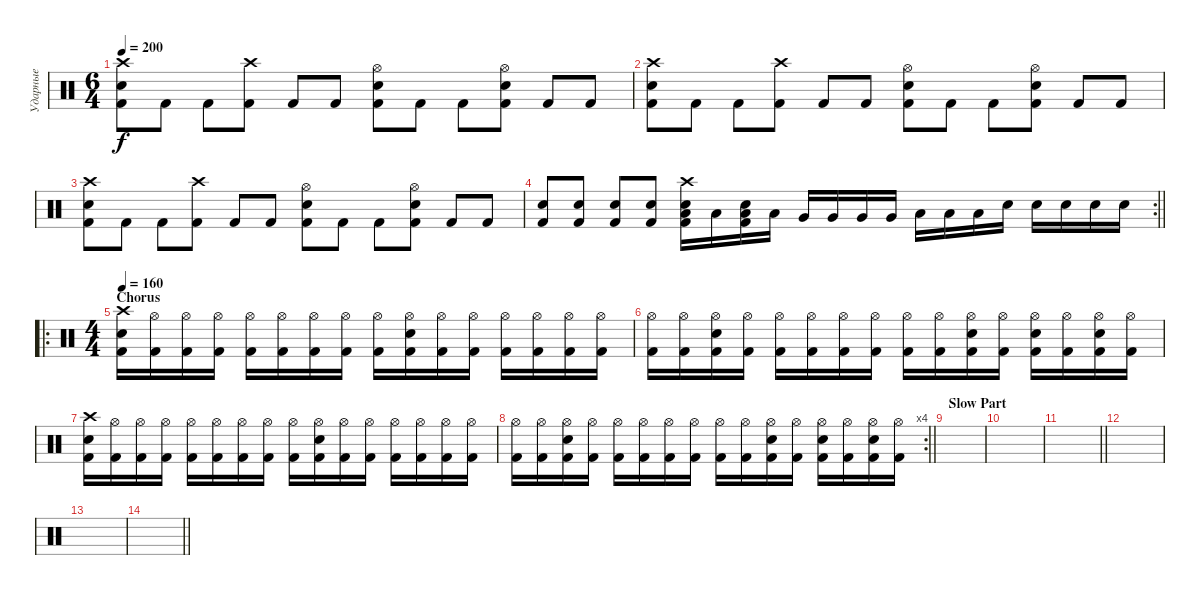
\track ("Ударные" "Ударные") {instrument percussion}
\staff {score}
\articulation defaults
\ts (6 4)
\tempo 200
\clef neutral
\ks c
("Crash high (hit)" "Snare (hit) 2" "Kick (hit) 2").8{dy f} "Kick (hit) 2".8 "Kick (hit) 2".8 ("Crash high (hit)" "Kick (hit) 2").8 "Kick (hit) 2".8 "Kick (hit) 2".8 ("Hi-Hat (open)" "Snare (hit) 2" "Kick (hit) 2").8 "Kick (hit) 2".8 "Kick (hit) 2".8 ("Hi-Hat (open)" "Snare (hit) 2" "Kick (hit) 2").8 "Kick (hit) 2".8 "Kick (hit) 2".8 |
("Crash high (hit)" "Snare (hit) 2" "Kick (hit) 2").8 "Kick (hit) 2".8 "Kick (hit) 2".8 ("Crash high (hit)" "Kick (hit) 2").8 "Kick (hit) 2".8 "Kick (hit) 2".8 ("Hi-Hat (open)" "Snare (hit) 2" "Kick (hit) 2").8 "Kick (hit) 2".8 "Kick (hit) 2".8 ("Hi-Hat (open)" "Snare (hit) 2" "Kick (hit) 2").8 "Kick (hit) 2".8 "Kick (hit) 2".8 |
("Crash high (hit)" "Snare (hit) 2" "Kick (hit) 2").8 "Kick (hit) 2".8 "Kick (hit) 2".8 ("Crash high (hit)" "Kick (hit) 2").8 "Kick (hit) 2".8 "Kick (hit) 2".8 ("Hi-Hat (open)" "Snare (hit) 2" "Kick (hit) 2").8 "Kick (hit) 2".8 "Kick (hit) 2".8 ("Hi-Hat (open)" "Snare (hit) 2" "Kick (hit) 2").8 "Kick (hit) 2".8 "Kick (hit) 2".8 |
\rc 2
\barLineRight lightlight
("Snare (hit) 2" "Kick (hit) 2").8 ("Snare (hit) 2" "Kick (hit) 2").8 ("Snare (hit) 2" "Kick (hit) 2").8 ("Snare (hit) 2" "Kick (hit) 2").8 ("Snare (hit) 2" "Crash high (hit)" "Low Tom (hit)" "Kick (hit) 2").16 "Low Tom (hit)".16 ("Snare (hit) 2" "Low Tom (hit)" "Kick (hit) 2").16 "Low Tom (hit)".16 "Very Low Tom (hit)".16 "Very Low Tom (hit)".16 "Very Low Tom (hit)".16 "Very Low Tom (hit)".16 "Low Floor Tom (hit)".16 "Low Floor Tom (hit)".16 "Low Floor Tom (hit)".16 "Snare (hit) 2".16 "Snare (hit) 2".16 "Snare (hit) 2".16 "Snare (hit) 2".16 "Snare (hit) 2".16 |
\ro
\ts (4 4)
\section ("" "Chorus")
\tempo 160
("Crash high (hit)" "Snare (hit) 2" "Kick (hit) 2").16 ("Hi-Hat (open)" "Kick (hit) 2").16 ("Hi-Hat (open)" "Kick (hit) 2").16 ("Hi-Hat (open)" "Kick (hit) 2").16 ("Hi-Hat (open)" "Kick (hit) 2").16 ("Hi-Hat (open)" "Kick (hit) 2").16 ("Hi-Hat (open)" "Kick (hit) 2").16 ("Hi-Hat (open)" "Kick (hit) 2").16 ("Hi-Hat (open)" "Kick (hit) 2").16 ("Hi-Hat (open)" "Snare (hit) 2" "Kick (hit) 2").16 ("Hi-Hat (open)" "Kick (hit) 2").16 ("Hi-Hat (open)" "Kick (hit) 2").16 ("Hi-Hat (open)" "Kick (hit) 2").16 ("Hi-Hat (open)" "Kick (hit) 2").16 ("Hi-Hat (open)" "Kick (hit) 2").16 ("Hi-Hat (open)" "Kick (hit) 2").16 |
("Hi-Hat (open)" "Kick (hit) 2").16 ("Hi-Hat (open)" "Kick (hit) 2").16 ("Hi-Hat (open)" "Snare (hit) 2" "Kick (hit) 2").16 ("Hi-Hat (open)" "Kick (hit) 2").16 ("Hi-Hat (open)" "Kick (hit) 2").16 ("Hi-Hat (open)" "Kick (hit) 2").16 ("Hi-Hat (open)" "Kick (hit) 2").16 ("Hi-Hat (open)" "Kick (hit) 2").16 ("Hi-Hat (open)" "Kick (hit) 2").16 ("Hi-Hat (open)" "Kick (hit) 2").16 ("Hi-Hat (open)" "Snare (hit) 2" "Kick (hit) 2").16 ("Hi-Hat (open)" "Kick (hit) 2").16 ("Hi-Hat (open)" "Snare (hit) 2" "Kick (hit) 2").16 ("Hi-Hat (open)" "Kick (hit) 2").16 ("Hi-Hat (open)" "Snare (hit) 2" "Kick (hit) 2").16 ("Hi-Hat (open)" "Kick (hit) 2").16 |
("Crash high (hit)" "Snare (hit) 2" "Kick (hit) 2").16 ("Hi-Hat (open)" "Kick (hit) 2").16 ("Hi-Hat (open)" "Kick (hit) 2").16 ("Hi-Hat (open)" "Kick (hit) 2").16 ("Hi-Hat (open)" "Kick (hit) 2").16 ("Hi-Hat (open)" "Kick (hit) 2").16 ("Hi-Hat (open)" "Kick (hit) 2").16 ("Hi-Hat (open)" "Kick (hit) 2").16 ("Hi-Hat (open)" "Kick (hit) 2").16 ("Hi-Hat (open)" "Snare (hit) 2" "Kick (hit) 2").16 ("Hi-Hat (open)" "Kick (hit) 2").16 ("Hi-Hat (open)" "Kick (hit) 2").16 ("Hi-Hat (open)" "Kick (hit) 2").16 ("Hi-Hat (open)" "Kick (hit) 2").16 ("Hi-Hat (open)" "Kick (hit) 2").16 ("Hi-Hat (open)" "Kick (hit) 2").16 |
\rc 4
\barLineRight lightlight
("Hi-Hat (open)" "Kick (hit) 2").16 ("Hi-Hat (open)" "Kick (hit) 2").16 ("Hi-Hat (open)" "Snare (hit) 2" "Kick (hit) 2").16 ("Hi-Hat (open)" "Kick (hit) 2").16 ("Hi-Hat (open)" "Kick (hit) 2").16 ("Hi-Hat (open)" "Kick (hit) 2").16 ("Hi-Hat (open)" "Kick (hit) 2").16 ("Hi-Hat (open)" "Kick (hit) 2").16 ("Hi-Hat (open)" "Kick (hit) 2").16 ("Hi-Hat (open)" "Kick (hit) 2").16 ("Hi-Hat (open)" "Snare (hit) 2" "Kick (hit) 2").16 ("Hi-Hat (open)" "Kick (hit) 2").16 ("Hi-Hat (open)" "Snare (hit) 2" "Kick (hit) 2").16 ("Hi-Hat (open)" "Kick (hit) 2").16 ("Hi-Hat (open)" "Snare (hit) 2" "Kick (hit) 2").16 ("Hi-Hat (open)" "Kick (hit) 2").16 |
\section ("" "Slow Part")
|
|
\barLineRight lightlight
|
|
|
\barLineRight lightlight
